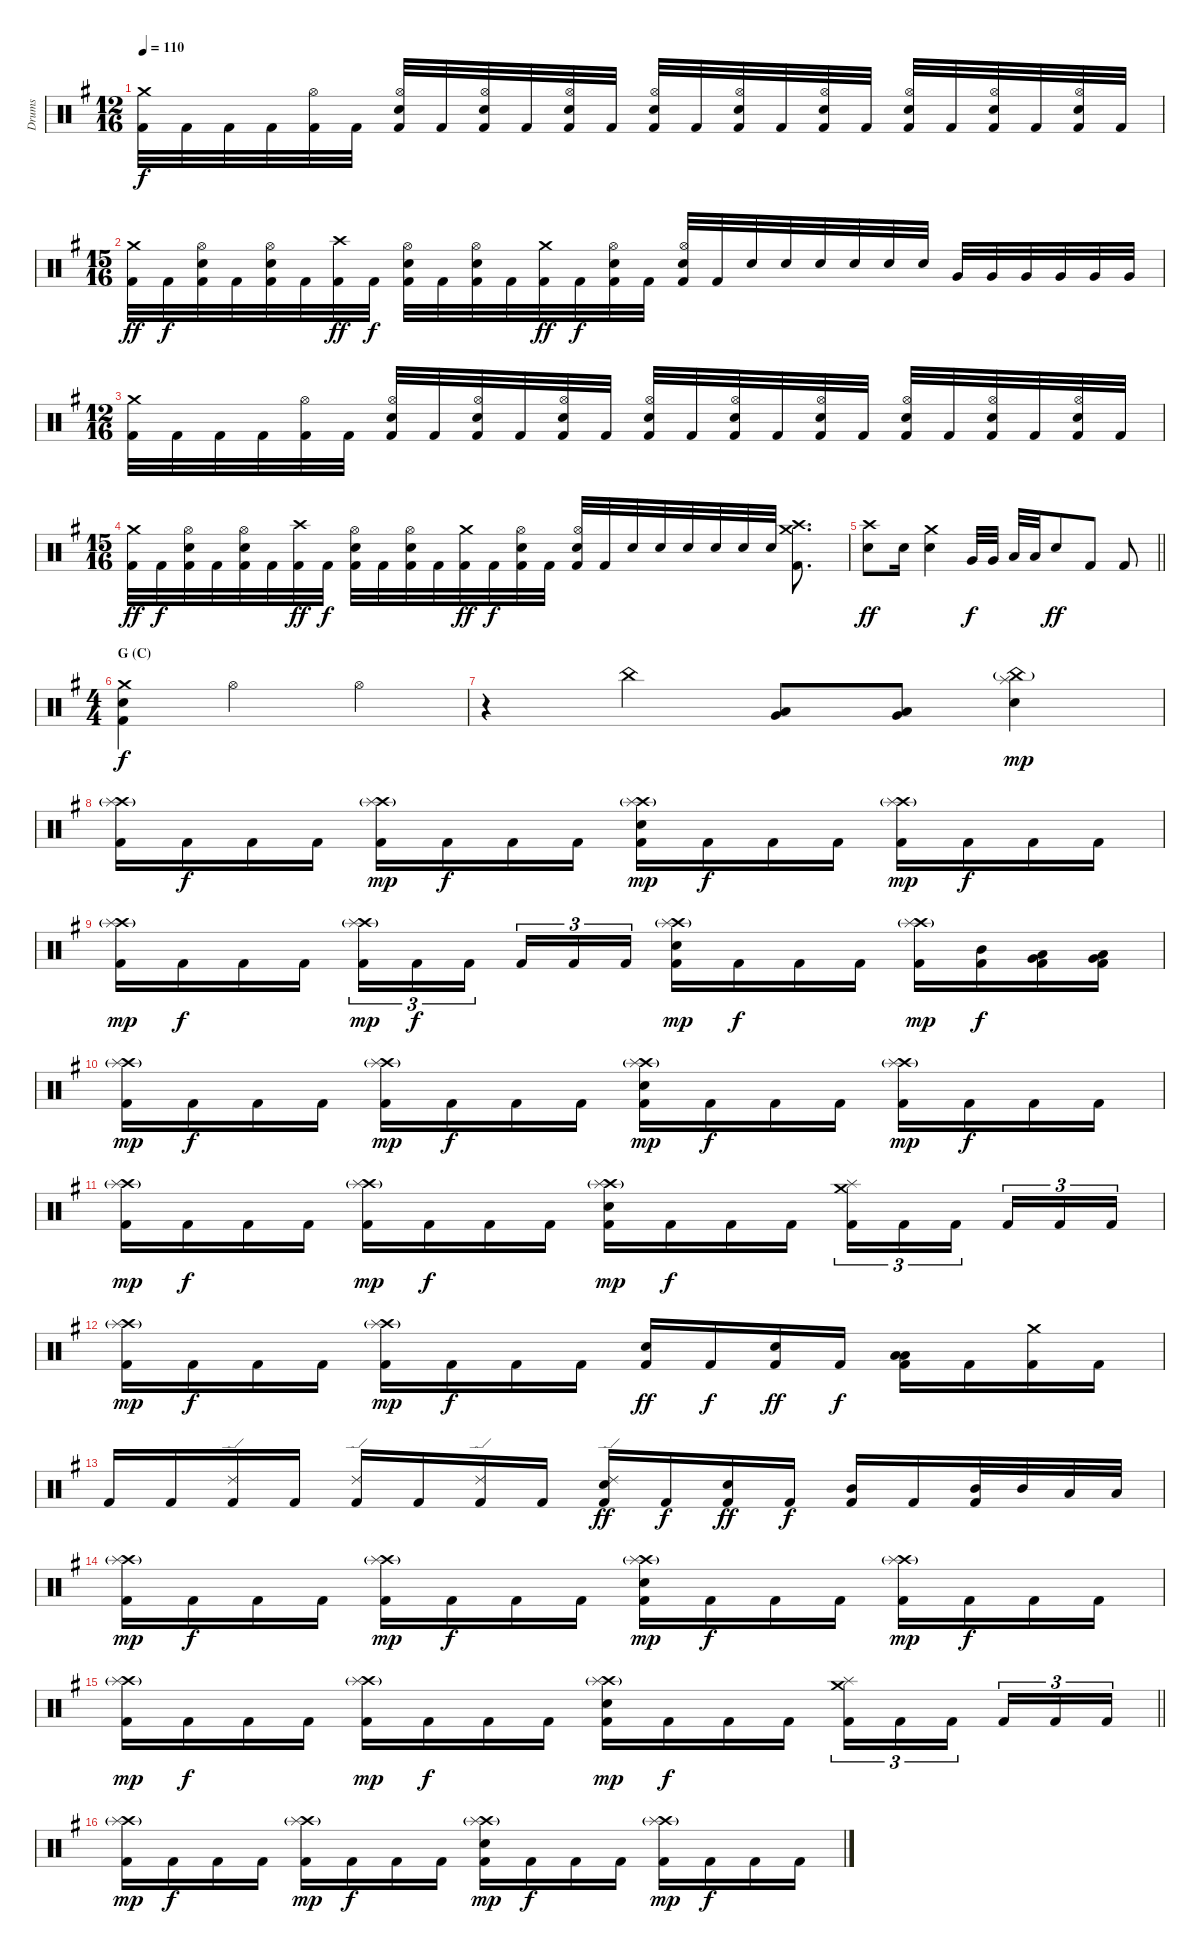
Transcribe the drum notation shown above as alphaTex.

\track ("Drums" "Drums") {instrument percussion}
\staff {score}
\articulation defaults
\ts (12 16)
\tempo 110
\clef neutral
\ks eminor
("Crash medium (hit)" "Kick (hit) 2").32{dy f} "Kick (hit) 2".32 "Kick (hit) 2".32 "Kick (hit) 2".32 ("Hi-Hat (open)" "Kick (hit) 2").32 "Kick (hit) 2".32 ("Hi-Hat (open)" "Snare (hit) 2" "Kick (hit) 2").32 "Kick (hit) 2".32 ("Hi-Hat (open)" "Snare (hit) 2" "Kick (hit) 2").32 "Kick (hit) 2".32 ("Hi-Hat (open)" "Snare (hit) 2" "Kick (hit) 2").32 "Kick (hit) 2".32 ("Hi-Hat (open)" "Snare (hit) 2" "Kick (hit) 2").32 "Kick (hit) 2".32 ("Hi-Hat (open)" "Snare (hit) 2" "Kick (hit) 2").32 "Kick (hit) 2".32 ("Hi-Hat (open)" "Snare (hit) 2" "Kick (hit) 2").32 "Kick (hit) 2".32 ("Hi-Hat (open)" "Snare (hit) 2" "Kick (hit) 2").32 "Kick (hit) 2".32 ("Hi-Hat (open)" "Snare (hit) 2" "Kick (hit) 2").32 "Kick (hit) 2".32 ("Hi-Hat (open)" "Snare (hit) 2" "Kick (hit) 2").32 "Kick (hit) 2".32 |
\ts (15 16)
("Crash medium (hit)" "Kick (hit) 2").32{dy ff} "Kick (hit) 2".32{dy f} ("Hi-Hat (open)" "Snare (hit) 2" "Kick (hit) 2").32 "Kick (hit) 2".32 ("Hi-Hat (open)" "Snare (hit) 2" "Kick (hit) 2").32 "Kick (hit) 2".32 ("Crash high (hit)" "Kick (hit) 2").32{dy ff} "Kick (hit) 2".32{dy f} ("Hi-Hat (open)" "Snare (hit) 2" "Kick (hit) 2").32 "Kick (hit) 2".32 ("Hi-Hat (open)" "Snare (hit) 2" "Kick (hit) 2").32 "Kick (hit) 2".32 ("Crash medium (hit)" "Kick (hit) 2").32{dy ff} "Kick (hit) 2".32{dy f} ("Hi-Hat (open)" "Snare (hit) 2" "Kick (hit) 2").32 "Kick (hit) 2".32 ("Hi-Hat (open)" "Snare (hit) 2" "Kick (hit) 2").32 "Kick (hit) 2".32 "Snare (hit) 2".32 "Snare (hit) 2".32 "Snare (hit) 2".32 "Snare (hit) 2".32 "Snare (hit) 2".32 "Snare (hit) 2".32 "Very Low Tom (hit)".32 "Very Low Tom (hit)".32 "Very Low Tom (hit)".32 "Very Low Tom (hit)".32 "Very Low Tom (hit)".32 "Very Low Tom (hit)".32 |
\ts (12 16)
("Crash medium (hit)" "Kick (hit) 2").32 "Kick (hit) 2".32 "Kick (hit) 2".32 "Kick (hit) 2".32 ("Hi-Hat (open)" "Kick (hit) 2").32 "Kick (hit) 2".32 ("Hi-Hat (open)" "Snare (hit) 2" "Kick (hit) 2").32 "Kick (hit) 2".32 ("Hi-Hat (open)" "Snare (hit) 2" "Kick (hit) 2").32 "Kick (hit) 2".32 ("Hi-Hat (open)" "Snare (hit) 2" "Kick (hit) 2").32 "Kick (hit) 2".32 ("Hi-Hat (open)" "Snare (hit) 2" "Kick (hit) 2").32 "Kick (hit) 2".32 ("Hi-Hat (open)" "Snare (hit) 2" "Kick (hit) 2").32 "Kick (hit) 2".32 ("Hi-Hat (open)" "Snare (hit) 2" "Kick (hit) 2").32 "Kick (hit) 2".32 ("Hi-Hat (open)" "Snare (hit) 2" "Kick (hit) 2").32 "Kick (hit) 2".32 ("Hi-Hat (open)" "Snare (hit) 2" "Kick (hit) 2").32 "Kick (hit) 2".32 ("Hi-Hat (open)" "Snare (hit) 2" "Kick (hit) 2").32 "Kick (hit) 2".32 |
\ts (15 16)
("Crash medium (hit)" "Kick (hit) 2").32{dy ff} "Kick (hit) 2".32{dy f} ("Hi-Hat (open)" "Snare (hit) 2" "Kick (hit) 2").32 "Kick (hit) 2".32 ("Hi-Hat (open)" "Snare (hit) 2" "Kick (hit) 2").32 "Kick (hit) 2".32 ("Crash high (hit)" "Kick (hit) 2").32{dy ff} "Kick (hit) 2".32{dy f} ("Hi-Hat (open)" "Snare (hit) 2" "Kick (hit) 2").32 "Kick (hit) 2".32 ("Hi-Hat (open)" "Snare (hit) 2" "Kick (hit) 2").32 "Kick (hit) 2".32 ("Crash medium (hit)" "Kick (hit) 2").32{dy ff} "Kick (hit) 2".32{dy f} ("Hi-Hat (open)" "Snare (hit) 2" "Kick (hit) 2").32 "Kick (hit) 2".32 ("Hi-Hat (open)" "Snare (hit) 2" "Kick (hit) 2").32 "Kick (hit) 2".32 "Snare (hit) 2".32 "Snare (hit) 2".32 "Snare (hit) 2".32 "Snare (hit) 2".32 "Snare (hit) 2".32 "Snare (hit) 2".32 ("Crash medium (hit)" "Crash high (hit)" "Kick (hit) 2").8{d} |
\barLineRight lightlight
("Crash high (hit)" "Snare (hit) 2").8{dy ff} "Snare (hit) 2".16 ("Crash medium (hit)" "Snare (hit) 2").4 "Very Low Tom (hit)".32{dy f} "Very Low Tom (hit)".32 "Low Floor Tom (hit)".32 "Low Floor Tom (hit)".32 "Snare (hit) 2".8{dy ff} "Kick (hit) 2".8 "Kick (hit) 2".8 |
\ts (4 4)
\section ("" "G (C)")
("Crash medium (hit)" "Snare (hit) 2" "Kick (hit) 2").4{dy f} "Hi-Hat (open)".2 "Hi-Hat (open)".4 |
r.4 "China (hit)".4 ("Very Low Tom (hit)" "Low Floor Tom (hit)").8 ("Very Low Tom (hit)" "Low Floor Tom (hit)").8 ("Splash (hit)" "China (hit)"{g} "Snare (hit) 2").4{dy mp} |
("Crash high (hit)"{g} "Splash (hit)" "Kick (hit) 2").16 "Kick (hit) 2".16{dy f} "Kick (hit) 2".16 "Kick (hit) 2".16 ("Crash high (hit)"{g} "Splash (hit)" "Kick (hit) 2").16{dy mp} "Kick (hit) 2".16{dy f} "Kick (hit) 2".16 "Kick (hit) 2".16 ("Crash high (hit)"{g} "Splash (hit)" "Snare (hit) 2" "Kick (hit) 2").16{dy mp} "Kick (hit) 2".16{dy f} "Kick (hit) 2".16 "Kick (hit) 2".16 ("Crash high (hit)"{g} "Splash (hit)" "Kick (hit) 2").16{dy mp} "Kick (hit) 2".16{dy f} "Kick (hit) 2".16 "Kick (hit) 2".16 |
("Crash high (hit)"{g} "Splash (hit)" "Kick (hit) 2").16{dy mp} "Kick (hit) 2".16{dy f} "Kick (hit) 2".16 "Kick (hit) 2".16 ("Crash high (hit)"{g} "Splash (hit)" "Kick (hit) 2").16{tu (3 2) dy mp} "Kick (hit) 2".16{tu (3 2) dy f} "Kick (hit) 2".16{tu (3 2) beam splitsecondary} "Kick (hit) 2".16{tu (3 2)} "Kick (hit) 2".16{tu (3 2)} "Kick (hit) 2".16{tu (3 2)} ("Crash high (hit)"{g} "Splash (hit)" "Snare (hit) 2" "Kick (hit) 2").16{dy mp} "Kick (hit) 2".16{dy f} "Kick (hit) 2".16 "Kick (hit) 2".16 ("Crash high (hit)"{g} "Splash (hit)" "Kick (hit) 2").16{dy mp} ("Mid Tom (hit)" "Kick (hit) 2").16{dy f} ("Very Low Tom (hit)" "Low Tom (hit)" "Kick (hit) 2").16 ("Low Floor Tom (hit)" "Very Low Tom (hit)" "Kick (hit) 2").16 |
("Crash high (hit)"{g} "Splash (hit)" "Kick (hit) 2").16{dy mp} "Kick (hit) 2".16{dy f} "Kick (hit) 2".16 "Kick (hit) 2".16 ("Crash high (hit)"{g} "Splash (hit)" "Kick (hit) 2").16{dy mp} "Kick (hit) 2".16{dy f} "Kick (hit) 2".16 "Kick (hit) 2".16 ("Crash high (hit)"{g} "Splash (hit)" "Snare (hit) 2" "Kick (hit) 2").16{dy mp} "Kick (hit) 2".16{dy f} "Kick (hit) 2".16 "Kick (hit) 2".16 ("Crash high (hit)"{g} "Splash (hit)" "Kick (hit) 2").16{dy mp} "Kick (hit) 2".16{dy f} "Kick (hit) 2".16 "Kick (hit) 2".16 |
("Crash high (hit)"{g} "Splash (hit)" "Kick (hit) 2").16{dy mp} "Kick (hit) 2".16{dy f} "Kick (hit) 2".16 "Kick (hit) 2".16 ("Crash high (hit)"{g} "Splash (hit)" "Kick (hit) 2").16{dy mp} "Kick (hit) 2".16{dy f} "Kick (hit) 2".16 "Kick (hit) 2".16 ("Crash high (hit)"{g} "Splash (hit)" "Snare (hit) 2" "Kick (hit) 2").16{dy mp} "Kick (hit) 2".16{dy f} "Kick (hit) 2".16 "Kick (hit) 2".16 ("Crash medium (hit)" "Splash (hit)" "Kick (hit) 2").16{tu (3 2)} "Kick (hit) 2".16{tu (3 2)} "Kick (hit) 2".16{tu (3 2) beam splitsecondary} "Kick (hit) 2".16{tu (3 2)} "Kick (hit) 2".16{tu (3 2)} "Kick (hit) 2".16{tu (3 2)} |
("Crash high (hit)"{g} "Splash (hit)" "Kick (hit) 2").16{dy mp} "Kick (hit) 2".16{dy f} "Kick (hit) 2".16 "Kick (hit) 2".16 ("Crash high (hit)"{g} "Splash (hit)" "Kick (hit) 2").16{dy mp} "Kick (hit) 2".16{dy f} "Kick (hit) 2".16 "Kick (hit) 2".16 ("Electric Snare (hit)" "Kick (hit) 2").16{dy ff} "Kick (hit) 2".16{dy f} ("Electric Snare (hit)" "Kick (hit) 2").16{dy ff} "Kick (hit) 2".16{dy f} ("Low Tom (hit)" "Low Tom (hit)" "Kick (hit) 2").16 "Kick (hit) 2".16 ("Crash medium (hit)" "Kick (hit) 2").16 "Kick (hit) 2".16 |
"Kick (hit) 2".16 "Kick (hit) 2".16 ("Ride (edge) 2" "Kick (hit) 2").16 "Kick (hit) 2".16 ("Ride (edge) 2" "Kick (hit) 2").16 "Kick (hit) 2".16 ("Ride (edge) 2" "Kick (hit) 2").16 "Kick (hit) 2".16 ("Ride (edge) 2" "Electric Snare (hit)" "Kick (hit) 2").16{dy ff} "Kick (hit) 2".16{dy f} ("Electric Snare (hit)" "Kick (hit) 2").16{dy ff} "Kick (hit) 2".16{dy f} ("Mid Tom (hit)" "Kick (hit) 2").16 "Kick (hit) 2".16 ("Mid Tom (hit)" "Kick (hit) 2").32 "Mid Tom (hit)".32 "Low Tom (hit)".32 "Low Tom (hit)".32 |
("Crash high (hit)"{g} "Splash (hit)" "Kick (hit) 2").16{dy mp} "Kick (hit) 2".16{dy f} "Kick (hit) 2".16 "Kick (hit) 2".16 ("Crash high (hit)"{g} "Splash (hit)" "Kick (hit) 2").16{dy mp} "Kick (hit) 2".16{dy f} "Kick (hit) 2".16 "Kick (hit) 2".16 ("Crash high (hit)"{g} "Splash (hit)" "Snare (hit) 2" "Kick (hit) 2").16{dy mp} "Kick (hit) 2".16{dy f} "Kick (hit) 2".16 "Kick (hit) 2".16 ("Crash high (hit)"{g} "Splash (hit)" "Kick (hit) 2").16{dy mp} "Kick (hit) 2".16{dy f} "Kick (hit) 2".16 "Kick (hit) 2".16 |
\barLineRight lightlight
("Crash high (hit)"{g} "Splash (hit)" "Kick (hit) 2").16{dy mp} "Kick (hit) 2".16{dy f} "Kick (hit) 2".16 "Kick (hit) 2".16 ("Crash high (hit)"{g} "Splash (hit)" "Kick (hit) 2").16{dy mp} "Kick (hit) 2".16{dy f} "Kick (hit) 2".16 "Kick (hit) 2".16 ("Crash high (hit)"{g} "Splash (hit)" "Snare (hit) 2" "Kick (hit) 2").16{dy mp} "Kick (hit) 2".16{dy f} "Kick (hit) 2".16 "Kick (hit) 2".16 ("Crash medium (hit)" "Splash (hit)" "Kick (hit) 2").16{tu (3 2)} "Kick (hit) 2".16{tu (3 2)} "Kick (hit) 2".16{tu (3 2) beam splitsecondary} "Kick (hit) 2".16{tu (3 2)} "Kick (hit) 2".16{tu (3 2)} "Kick (hit) 2".16{tu (3 2)} |
("Crash high (hit)"{g} "Splash (hit)" "Kick (hit) 2").16{dy mp} "Kick (hit) 2".16{dy f} "Kick (hit) 2".16 "Kick (hit) 2".16 ("Crash high (hit)"{g} "Splash (hit)" "Kick (hit) 2").16{dy mp} "Kick (hit) 2".16{dy f} "Kick (hit) 2".16 "Kick (hit) 2".16 ("Crash high (hit)"{g} "Splash (hit)" "Snare (hit) 2" "Kick (hit) 2").16{dy mp} "Kick (hit) 2".16{dy f} "Kick (hit) 2".16 "Kick (hit) 2".16 ("Crash high (hit)"{g} "Splash (hit)" "Kick (hit) 2").16{dy mp} "Kick (hit) 2".16{dy f} "Kick (hit) 2".16 "Kick (hit) 2".16
